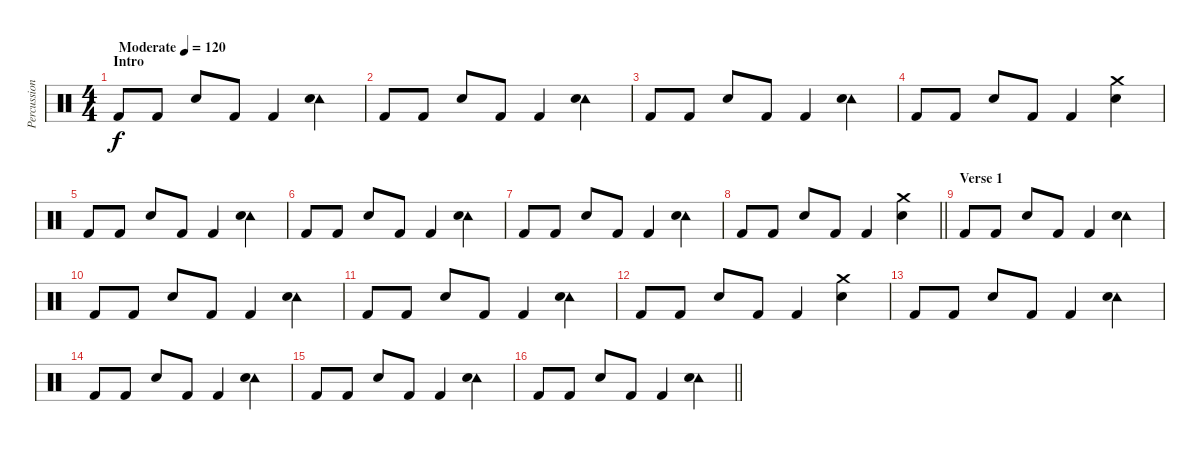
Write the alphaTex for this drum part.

\track ("Percussion" "Percussion") {instrument percussion}
\staff {score}
\articulation defaults
\ts (4 4)
\section ("" "Intro")
\tempo (120 "Moderate")
\clef neutral
\ks c "Kick (hit) 2".8{dy f} "Kick (hit) 2".8 "Snare (hit) 2".8 "Kick (hit) 2".8 "Kick (hit) 2".4
("Tambourine (hit)" "Snare (hit) 2").4 |
"Kick (hit) 2".8 "Kick (hit) 2".8 "Snare (hit) 2".8 "Kick (hit) 2".8 "Kick (hit) 2".4 ("Tambourine (hit)" "Snare (hit) 2").4 |
"Kick (hit) 2".8 "Kick (hit) 2".8 "Snare (hit) 2".8 "Kick (hit) 2".8 "Kick (hit) 2".4 ("Tambourine (hit)" "Snare (hit) 2").4 |
"Kick (hit) 2".8 "Kick (hit) 2".8 "Snare (hit) 2".8 "Kick (hit) 2".8 "Kick (hit) 2".4 ("Crash medium (hit)" "Snare (hit) 2").4 |
"Kick (hit) 2".8 "Kick (hit) 2".8 "Snare (hit) 2".8 "Kick (hit) 2".8 "Kick (hit) 2".4 ("Tambourine (hit)" "Snare (hit) 2").4 |
"Kick (hit) 2".8 "Kick (hit) 2".8 "Snare (hit) 2".8 "Kick (hit) 2".8 "Kick (hit) 2".4 ("Tambourine (hit)" "Snare (hit) 2").4 |
"Kick (hit) 2".8 "Kick (hit) 2".8 "Snare (hit) 2".8 "Kick (hit) 2".8 "Kick (hit) 2".4 ("Tambourine (hit)" "Snare (hit) 2").4 |
\barLineRight lightlight "Kick (hit) 2".8 "Kick (hit) 2".8 "Snare (hit) 2".8 "Kick (hit) 2".8 "Kick (hit) 2".4
("Crash medium (hit)" "Snare (hit) 2").4 |
\section ("" "Verse 1")
"Kick (hit) 2".8 "Kick (hit) 2".8 "Snare (hit) 2".8 "Kick (hit) 2".8 "Kick (hit) 2".4 ("Tambourine (hit)" "Snare (hit) 2").4 |
"Kick (hit) 2".8 "Kick (hit) 2".8 "Snare (hit) 2".8 "Kick (hit) 2".8 "Kick (hit) 2".4 ("Tambourine (hit)" "Snare (hit) 2").4 |
"Kick (hit) 2".8 "Kick (hit) 2".8 "Snare (hit) 2".8 "Kick (hit) 2".8 "Kick (hit) 2".4 ("Tambourine (hit)" "Snare (hit) 2").4 |
"Kick (hit) 2".8 "Kick (hit) 2".8 "Snare (hit) 2".8 "Kick (hit) 2".8 "Kick (hit) 2".4 ("Crash medium (hit)" "Snare (hit) 2").4 |
"Kick (hit) 2".8 "Kick (hit) 2".8 "Snare (hit) 2".8 "Kick (hit) 2".8 "Kick (hit) 2".4 ("Tambourine (hit)" "Snare (hit) 2").4 |
"Kick (hit) 2".8 "Kick (hit) 2".8 "Snare (hit) 2".8 "Kick (hit) 2".8 "Kick (hit) 2".4 ("Tambourine (hit)" "Snare (hit) 2").4 |
"Kick (hit) 2".8 "Kick (hit) 2".8 "Snare (hit) 2".8 "Kick (hit) 2".8 "Kick (hit) 2".4 ("Tambourine (hit)" "Snare (hit) 2").4 |
\barLineRight lightlight "Kick (hit) 2".8 "Kick (hit) 2".8 "Snare (hit) 2".8 "Kick (hit) 2".8 "Kick (hit) 2".4
("Tambourine (hit)" "Snare (hit) 2").4
